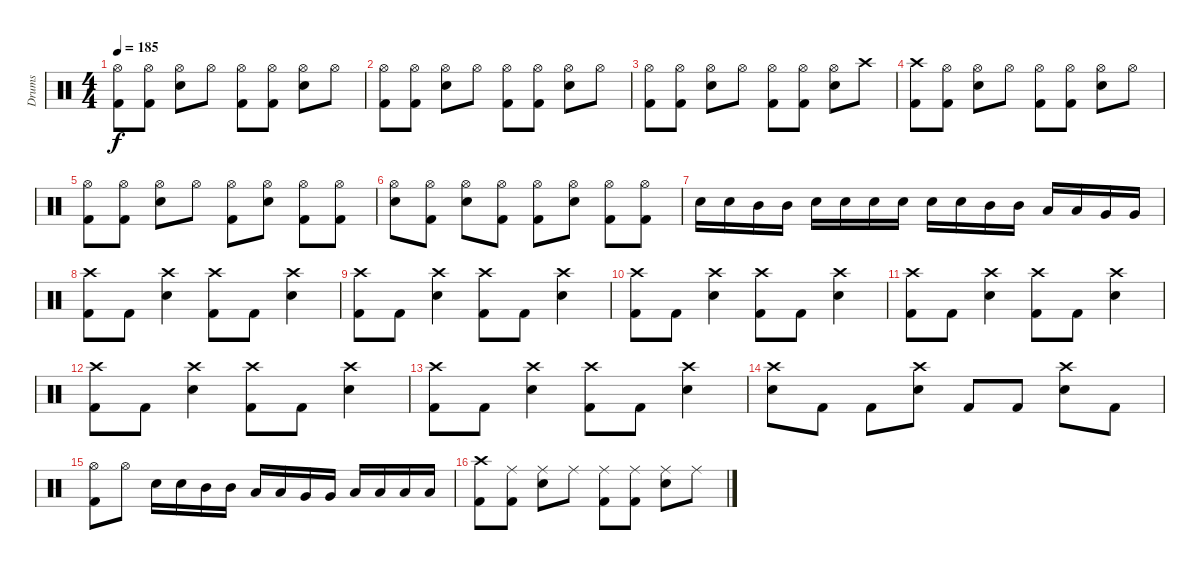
\track ("Drums" "Drums") {instrument percussion}
\staff {score}
\articulation defaults
\ts (4 4)
\tempo 185
\clef neutral
\ks c
("Hi-Hat (open)" "Kick (hit) 2").8{dy f} ("Hi-Hat (open)" "Kick (hit) 2").8 ("Hi-Hat (open)" "Snare (hit) 2").8 "Hi-Hat (open)".8 ("Hi-Hat (open)" "Kick (hit) 2").8 ("Hi-Hat (open)" "Kick (hit) 2").8 ("Hi-Hat (open)" "Snare (hit) 2").8 "Hi-Hat (open)".8 |
("Hi-Hat (open)" "Kick (hit) 2").8 ("Hi-Hat (open)" "Kick (hit) 2").8 ("Hi-Hat (open)" "Snare (hit) 2").8 "Hi-Hat (open)".8 ("Hi-Hat (open)" "Kick (hit) 2").8 ("Hi-Hat (open)" "Kick (hit) 2").8 ("Hi-Hat (open)" "Snare (hit) 2").8 "Hi-Hat (open)".8 |
("Hi-Hat (open)" "Kick (hit) 2").8 ("Hi-Hat (open)" "Kick (hit) 2").8 ("Hi-Hat (open)" "Snare (hit) 2").8 "Hi-Hat (open)".8 ("Hi-Hat (open)" "Kick (hit) 2").8 ("Hi-Hat (open)" "Kick (hit) 2").8 ("Hi-Hat (open)" "Snare (hit) 2").8 "Crash high (hit)".8 |
("Crash high (hit)" "Kick (hit) 2").8 ("Hi-Hat (open)" "Kick (hit) 2").8 ("Hi-Hat (open)" "Snare (hit) 2").8 "Hi-Hat (open)".8 ("Hi-Hat (open)" "Kick (hit) 2").8 ("Hi-Hat (open)" "Kick (hit) 2").8 ("Hi-Hat (open)" "Snare (hit) 2").8 "Hi-Hat (open)".8 |
("Hi-Hat (open)" "Kick (hit) 2").8 ("Hi-Hat (open)" "Kick (hit) 2").8 ("Hi-Hat (open)" "Snare (hit) 2").8 "Hi-Hat (open)".8 ("Hi-Hat (open)" "Kick (hit) 2").8 ("Hi-Hat (open)" "Snare (hit) 2").8 ("Hi-Hat (open)" "Kick (hit) 2").8 ("Hi-Hat (open)" "Kick (hit) 2").8 |
("Hi-Hat (open)" "Snare (hit) 2").8 ("Hi-Hat (open)" "Kick (hit) 2").8 ("Hi-Hat (open)" "Snare (hit) 2").8 ("Hi-Hat (open)" "Kick (hit) 2").8 ("Hi-Hat (open)" "Kick (hit) 2").8 ("Hi-Hat (open)" "Snare (hit) 2").8 ("Hi-Hat (open)" "Kick (hit) 2").8 ("Hi-Hat (open)" "Kick (hit) 2").8 |
"Snare (hit) 2".16 "Snare (hit) 2".16 "Mid Tom (hit)".16 "Mid Tom (hit)".16 "Snare (hit) 2".16 "Snare (hit) 2".16 "Snare (hit) 2".16 "Snare (hit) 2".16 "Snare (hit) 2".16 "Snare (hit) 2".16 "Mid Tom (hit)".16 "Mid Tom (hit)".16 "Low Tom (hit)".16 "Low Tom (hit)".16 "Very Low Tom (hit)".16 "Very Low Tom (hit)".16 |
("Crash high (hit)" "Kick (hit) 2").8 "Kick (hit) 2".8 ("Crash high (hit)" "Snare (hit) 2").4 ("Crash high (hit)" "Kick (hit) 2").8 "Kick (hit) 2".8 ("Crash high (hit)" "Snare (hit) 2").4 |
("Crash high (hit)" "Kick (hit) 2").8 "Kick (hit) 2".8 ("Crash high (hit)" "Snare (hit) 2").4 ("Crash high (hit)" "Kick (hit) 2").8 "Kick (hit) 2".8 ("Crash high (hit)" "Snare (hit) 2").4 |
("Crash high (hit)" "Kick (hit) 2").8 "Kick (hit) 2".8 ("Crash high (hit)" "Snare (hit) 2").4 ("Crash high (hit)" "Kick (hit) 2").8 "Kick (hit) 2".8 ("Crash high (hit)" "Snare (hit) 2").4 |
("Crash high (hit)" "Kick (hit) 2").8 "Kick (hit) 2".8 ("Crash high (hit)" "Snare (hit) 2").4 ("Crash high (hit)" "Kick (hit) 2").8 "Kick (hit) 2".8 ("Crash high (hit)" "Snare (hit) 2").4 |
("Crash high (hit)" "Kick (hit) 2").8 "Kick (hit) 2".8 ("Crash high (hit)" "Snare (hit) 2").4 ("Crash high (hit)" "Kick (hit) 2").8 "Kick (hit) 2".8 ("Crash high (hit)" "Snare (hit) 2").4 |
("Crash high (hit)" "Kick (hit) 2").8 "Kick (hit) 2".8 ("Crash high (hit)" "Snare (hit) 2").4 ("Crash high (hit)" "Kick (hit) 2").8 "Kick (hit) 2".8 ("Crash high (hit)" "Snare (hit) 2").4 |
("Crash high (hit)" "Snare (hit) 2").8 "Kick (hit) 2".8 "Kick (hit) 2".8 ("Crash high (hit)" "Snare (hit) 2").8 "Kick (hit) 2".8 "Kick (hit) 2".8 ("Crash high (hit)" "Snare (hit) 2").8 "Kick (hit) 2".8 |
("Hi-Hat (open)" "Kick (hit) 2").8 "Hi-Hat (open)".8 "Snare (hit) 2".16 "Snare (hit) 2".16 "Mid Tom (hit)".16 "Mid Tom (hit)".16 "Low Tom (hit)".16 "Low Tom (hit)".16 "Very Low Tom (hit)".16 "Very Low Tom (hit)".16 "Low Floor Tom (hit)".16 "Low Floor Tom (hit)".16 "Low Floor Tom (hit)".16 "Low Floor Tom (hit)".16 |
("Crash high (hit)" "Kick (hit) 2").8 ("Ride (middle)" "Kick (hit) 2").8 ("Ride (middle)" "Snare (hit) 2").8 "Ride (middle)".8 ("Ride (middle)" "Kick (hit) 2").8 ("Ride (middle)" "Kick (hit) 2").8 ("Ride (middle)" "Snare (hit) 2").8 "Ride (middle)".8
